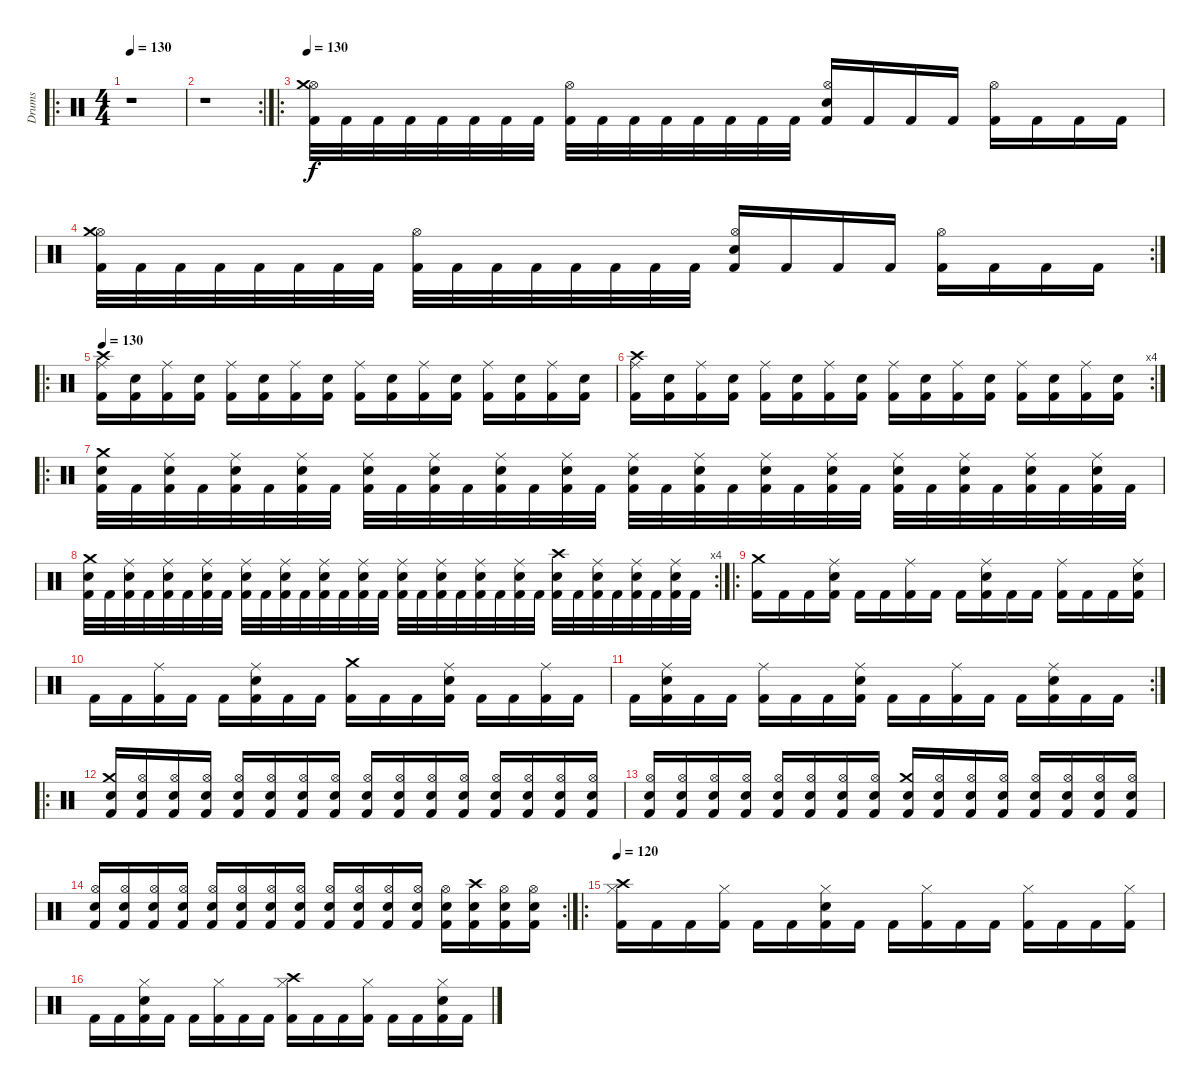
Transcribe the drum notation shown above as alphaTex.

\track ("Drums" "Drums") {instrument percussion}
\staff {score}
\articulation defaults
\ro
\ts (4 4)
\tempo 130
\clef neutral
\ks c
r.1{dy f} |
\rc 2
r.1 |
\ro
\tempo 130
("Kick (hit) 2" "Hi-Hat (open)" "Crash medium (hit)").32 "Kick (hit) 2".32 "Kick (hit) 2".32 "Kick (hit) 2".32 "Kick (hit) 2".32 "Kick (hit) 2".32 "Kick (hit) 2".32 "Kick (hit) 2".32 ("Kick (hit) 2" "Hi-Hat (open)").32 "Kick (hit) 2".32 "Kick (hit) 2".32 "Kick (hit) 2".32 "Kick (hit) 2".32 "Kick (hit) 2".32 "Kick (hit) 2".32 "Kick (hit) 2".32 ("Kick (hit) 2" "Hi-Hat (open)" "Snare (hit) 2").16 "Kick (hit) 2".16 "Kick (hit) 2".16 "Kick (hit) 2".16 ("Kick (hit) 2" "Hi-Hat (open)").16 "Kick (hit) 2".16 "Kick (hit) 2".16 "Kick (hit) 2".16 |
\rc 2
("Kick (hit) 2" "Hi-Hat (open)" "Crash medium (hit)").32 "Kick (hit) 2".32 "Kick (hit) 2".32 "Kick (hit) 2".32 "Kick (hit) 2".32 "Kick (hit) 2".32 "Kick (hit) 2".32 "Kick (hit) 2".32 ("Kick (hit) 2" "Hi-Hat (open)").32 "Kick (hit) 2".32 "Kick (hit) 2".32 "Kick (hit) 2".32 "Kick (hit) 2".32 "Kick (hit) 2".32 "Kick (hit) 2".32 "Kick (hit) 2".32 ("Kick (hit) 2" "Hi-Hat (open)" "Snare (hit) 2").16 "Kick (hit) 2".16 "Kick (hit) 2".16 "Kick (hit) 2".16 ("Kick (hit) 2" "Hi-Hat (open)").16 "Kick (hit) 2".16 "Kick (hit) 2".16 "Kick (hit) 2".16 |
\ro
\tempo 130
("Kick (hit) 2" "Ride (middle)" "Crash high (hit)").16 ("Kick (hit) 2" "Snare (hit) 2").16 ("Kick (hit) 2" "Ride (middle)").16 ("Kick (hit) 2" "Snare (hit) 2").16 ("Kick (hit) 2" "Ride (middle)").16 ("Kick (hit) 2" "Snare (hit) 2").16 ("Kick (hit) 2" "Ride (middle)").16 ("Kick (hit) 2" "Snare (hit) 2").16 ("Kick (hit) 2" "Ride (middle)").16 ("Kick (hit) 2" "Snare (hit) 2").16 ("Kick (hit) 2" "Ride (middle)").16 ("Kick (hit) 2" "Snare (hit) 2").16 ("Kick (hit) 2" "Ride (middle)").16 ("Kick (hit) 2" "Snare (hit) 2").16 ("Kick (hit) 2" "Ride (middle)").16 ("Kick (hit) 2" "Snare (hit) 2").16 |
\rc 4
("Kick (hit) 2" "Ride (middle)" "Crash high (hit)").16 ("Kick (hit) 2" "Snare (hit) 2").16 ("Kick (hit) 2" "Ride (middle)").16 ("Kick (hit) 2" "Snare (hit) 2").16 ("Kick (hit) 2" "Ride (middle)").16 ("Kick (hit) 2" "Snare (hit) 2").16 ("Kick (hit) 2" "Ride (middle)").16 ("Kick (hit) 2" "Snare (hit) 2").16 ("Kick (hit) 2" "Ride (middle)").16 ("Kick (hit) 2" "Snare (hit) 2").16 ("Kick (hit) 2" "Ride (middle)").16 ("Kick (hit) 2" "Snare (hit) 2").16 ("Kick (hit) 2" "Ride (middle)").16 ("Kick (hit) 2" "Snare (hit) 2").16 ("Kick (hit) 2" "Ride (middle)").16 ("Kick (hit) 2" "Snare (hit) 2").16 |
\ro
("Kick (hit) 2" "Snare (hit) 2" "Crash medium (hit)").32 "Kick (hit) 2".32 ("Kick (hit) 2" "Ride (middle)" "Snare (hit) 2").32 "Kick (hit) 2".32 ("Kick (hit) 2" "Ride (middle)" "Snare (hit) 2").32 "Kick (hit) 2".32 ("Kick (hit) 2" "Ride (middle)" "Snare (hit) 2").32 "Kick (hit) 2".32 ("Kick (hit) 2" "Ride (middle)" "Snare (hit) 2").32 "Kick (hit) 2".32 ("Kick (hit) 2" "Ride (middle)" "Snare (hit) 2").32 "Kick (hit) 2".32 ("Kick (hit) 2" "Ride (middle)" "Snare (hit) 2").32 "Kick (hit) 2".32 ("Kick (hit) 2" "Ride (middle)" "Snare (hit) 2").32 "Kick (hit) 2".32 ("Kick (hit) 2" "Ride (middle)" "Snare (hit) 2").32 "Kick (hit) 2".32 ("Kick (hit) 2" "Ride (middle)" "Snare (hit) 2").32 "Kick (hit) 2".32 ("Kick (hit) 2" "Ride (middle)" "Snare (hit) 2").32 "Kick (hit) 2".32 ("Kick (hit) 2" "Ride (middle)" "Snare (hit) 2").32 "Kick (hit) 2".32 ("Kick (hit) 2" "Ride (middle)" "Snare (hit) 2").32 "Kick (hit) 2".32 ("Kick (hit) 2" "Ride (middle)" "Snare (hit) 2").32 "Kick (hit) 2".32 ("Kick (hit) 2" "Ride (middle)" "Snare (hit) 2").32 "Kick (hit) 2".32 ("Kick (hit) 2" "Ride (middle)" "Snare (hit) 2").32 "Kick (hit) 2".32 |
\rc 4
("Kick (hit) 2" "Snare (hit) 2" "Crash medium (hit)").32 "Kick (hit) 2".32 ("Kick (hit) 2" "Ride (middle)" "Snare (hit) 2").32 "Kick (hit) 2".32 ("Kick (hit) 2" "Ride (middle)" "Snare (hit) 2").32 "Kick (hit) 2".32 ("Kick (hit) 2" "Ride (middle)" "Snare (hit) 2").32 "Kick (hit) 2".32 ("Kick (hit) 2" "Ride (middle)" "Snare (hit) 2").32 "Kick (hit) 2".32 ("Kick (hit) 2" "Ride (middle)" "Snare (hit) 2").32 "Kick (hit) 2".32 ("Kick (hit) 2" "Ride (middle)" "Snare (hit) 2").32 "Kick (hit) 2".32 ("Kick (hit) 2" "Ride (middle)" "Snare (hit) 2").32 "Kick (hit) 2".32 ("Kick (hit) 2" "Ride (middle)" "Snare (hit) 2").32 "Kick (hit) 2".32 ("Kick (hit) 2" "Ride (middle)" "Snare (hit) 2").32 "Kick (hit) 2".32 ("Kick (hit) 2" "Ride (middle)" "Snare (hit) 2").32 "Kick (hit) 2".32 ("Kick (hit) 2" "Ride (middle)" "Snare (hit) 2").32 "Kick (hit) 2".32 ("Kick (hit) 2" "Snare (hit) 2" "Crash high (hit)").32 "Kick (hit) 2".32 ("Kick (hit) 2" "Ride (middle)" "Snare (hit) 2").32 "Kick (hit) 2".32 ("Kick (hit) 2" "Ride (middle)" "Snare (hit) 2").32 "Kick (hit) 2".32 ("Kick (hit) 2" "Ride (middle)" "Snare (hit) 2").32 "Kick (hit) 2".32 |
\ro
("Kick (hit) 2" "Crash medium (hit)").16 "Kick (hit) 2".16 "Kick (hit) 2".16 ("Kick (hit) 2" "Ride (middle)" "Snare (hit) 2").16 "Kick (hit) 2".16 "Kick (hit) 2".16 ("Kick (hit) 2" "Ride (middle)").16 "Kick (hit) 2".16 "Kick (hit) 2".16 ("Kick (hit) 2" "Ride (middle)" "Snare (hit) 2").16 "Kick (hit) 2".16 "Kick (hit) 2".16 ("Kick (hit) 2" "Ride (middle)").16 "Kick (hit) 2".16 "Kick (hit) 2".16 ("Kick (hit) 2" "Ride (middle)" "Snare (hit) 2").16 |
"Kick (hit) 2".16 "Kick (hit) 2".16 ("Kick (hit) 2" "Ride (middle)").16 "Kick (hit) 2".16 "Kick (hit) 2".16 ("Kick (hit) 2" "Ride (middle)" "Snare (hit) 2").16 "Kick (hit) 2".16 "Kick (hit) 2".16 ("Kick (hit) 2" "Crash medium (hit)").16 "Kick (hit) 2".16 "Kick (hit) 2".16 ("Kick (hit) 2" "Ride (middle)" "Snare (hit) 2").16 "Kick (hit) 2".16 "Kick (hit) 2".16 ("Kick (hit) 2" "Ride (middle)").16 "Kick (hit) 2".16 |
\rc 2 "Kick (hit) 2".16
("Kick (hit) 2" "Ride (middle)" "Snare (hit) 2").16 "Kick (hit) 2".16 "Kick (hit) 2".16 ("Kick (hit) 2" "Ride (middle)").16 "Kick (hit) 2".16 "Kick (hit) 2".16 ("Kick (hit) 2" "Ride (middle)" "Snare (hit) 2").16 "Kick (hit) 2".16 "Kick (hit) 2".16 ("Kick (hit) 2" "Ride (middle)").16 "Kick (hit) 2".16 "Kick (hit) 2".16 ("Kick (hit) 2" "Ride (middle)" "Snare (hit) 2").16 "Kick (hit) 2".16 "Kick (hit) 2".16 |
\ro
("Kick (hit) 2" "Snare (hit) 2" "Crash medium (hit)").16 ("Kick (hit) 2" "Hi-Hat (open)" "Snare (hit) 2").16 ("Kick (hit) 2" "Hi-Hat (open)" "Snare (hit) 2").16 ("Kick (hit) 2" "Hi-Hat (open)" "Snare (hit) 2").16 ("Kick (hit) 2" "Hi-Hat (open)" "Snare (hit) 2").16 ("Kick (hit) 2" "Hi-Hat (open)" "Snare (hit) 2").16 ("Kick (hit) 2" "Hi-Hat (open)" "Snare (hit) 2").16 ("Kick (hit) 2" "Hi-Hat (open)" "Snare (hit) 2").16 ("Kick (hit) 2" "Hi-Hat (open)" "Snare (hit) 2").16 ("Kick (hit) 2" "Hi-Hat (open)" "Snare (hit) 2").16 ("Kick (hit) 2" "Hi-Hat (open)" "Snare (hit) 2").16 ("Kick (hit) 2" "Hi-Hat (open)" "Snare (hit) 2").16 ("Kick (hit) 2" "Hi-Hat (open)" "Snare (hit) 2").16 ("Kick (hit) 2" "Hi-Hat (open)" "Snare (hit) 2").16 ("Kick (hit) 2" "Hi-Hat (open)" "Snare (hit) 2").16 ("Kick (hit) 2" "Hi-Hat (open)" "Snare (hit) 2").16 |
("Kick (hit) 2" "Hi-Hat (open)" "Snare (hit) 2").16 ("Kick (hit) 2" "Hi-Hat (open)" "Snare (hit) 2").16 ("Kick (hit) 2" "Hi-Hat (open)" "Snare (hit) 2").16 ("Kick (hit) 2" "Hi-Hat (open)" "Snare (hit) 2").16 ("Kick (hit) 2" "Hi-Hat (open)" "Snare (hit) 2").16 ("Kick (hit) 2" "Hi-Hat (open)" "Snare (hit) 2").16 ("Kick (hit) 2" "Hi-Hat (open)" "Snare (hit) 2").16 ("Kick (hit) 2" "Hi-Hat (open)" "Snare (hit) 2").16 ("Kick (hit) 2" "Snare (hit) 2" "Crash medium (hit)").16 ("Kick (hit) 2" "Hi-Hat (open)" "Snare (hit) 2").16 ("Kick (hit) 2" "Hi-Hat (open)" "Snare (hit) 2").16 ("Kick (hit) 2" "Hi-Hat (open)" "Snare (hit) 2").16 ("Kick (hit) 2" "Hi-Hat (open)" "Snare (hit) 2").16 ("Kick (hit) 2" "Hi-Hat (open)" "Snare (hit) 2").16 ("Kick (hit) 2" "Hi-Hat (open)" "Snare (hit) 2").16 ("Kick (hit) 2" "Hi-Hat (open)" "Snare (hit) 2").16 |
\rc 2
("Kick (hit) 2" "Hi-Hat (open)" "Snare (hit) 2").16 ("Kick (hit) 2" "Hi-Hat (open)" "Snare (hit) 2").16 ("Kick (hit) 2" "Hi-Hat (open)" "Snare (hit) 2").16 ("Kick (hit) 2" "Hi-Hat (open)" "Snare (hit) 2").16 ("Kick (hit) 2" "Hi-Hat (open)" "Snare (hit) 2").16 ("Kick (hit) 2" "Hi-Hat (open)" "Snare (hit) 2").16 ("Kick (hit) 2" "Hi-Hat (open)" "Snare (hit) 2").16 ("Kick (hit) 2" "Hi-Hat (open)" "Snare (hit) 2").16 ("Kick (hit) 2" "Hi-Hat (open)" "Snare (hit) 2").16 ("Kick (hit) 2" "Hi-Hat (open)" "Snare (hit) 2").16 ("Kick (hit) 2" "Hi-Hat (open)" "Snare (hit) 2").16 ("Kick (hit) 2" "Hi-Hat (open)" "Snare (hit) 2").16 ("Kick (hit) 2" "Hi-Hat (open)" "Snare (hit) 2").16 ("Kick (hit) 2" "Snare (hit) 2" "Crash high (hit)").16 ("Kick (hit) 2" "Hi-Hat (open)" "Snare (hit) 2").16 ("Kick (hit) 2" "Hi-Hat (open)" "Snare (hit) 2").16 |
\ro
\tempo 120
("Kick (hit) 2" "Hi-Hat (closed)" "Crash high (hit)").16 "Kick (hit) 2".16 "Kick (hit) 2".16 ("Kick (hit) 2" "Hi-Hat (closed)").16 "Kick (hit) 2".16 "Kick (hit) 2".16 ("Kick (hit) 2" "Hi-Hat (closed)" "Snare (hit) 2").16 "Kick (hit) 2".16 "Kick (hit) 2".16 ("Kick (hit) 2" "Hi-Hat (closed)").16 "Kick (hit) 2".16 "Kick (hit) 2".16 ("Kick (hit) 2" "Hi-Hat (closed)").16 "Kick (hit) 2".16 "Kick (hit) 2".16 ("Kick (hit) 2" "Hi-Hat (closed)").16 |
"Kick (hit) 2".16 "Kick (hit) 2".16 ("Kick (hit) 2" "Hi-Hat (closed)" "Snare (hit) 2").16 "Kick (hit) 2".16 "Kick (hit) 2".16 ("Kick (hit) 2" "Hi-Hat (closed)").16 "Kick (hit) 2".16 "Kick (hit) 2".16 ("Kick (hit) 2" "Hi-Hat (closed)" "Crash high (hit)").16 "Kick (hit) 2".16 "Kick (hit) 2".16 ("Kick (hit) 2" "Hi-Hat (closed)").16 "Kick (hit) 2".16 "Kick (hit) 2".16 ("Kick (hit) 2" "Hi-Hat (closed)" "Snare (hit) 2").16 "Kick (hit) 2".16
